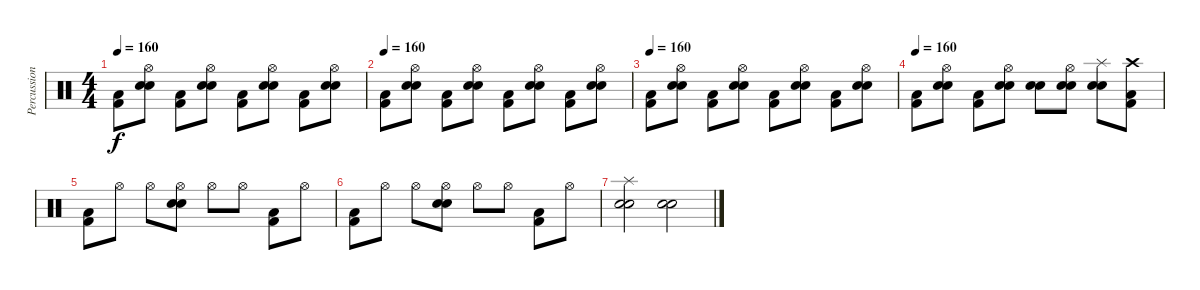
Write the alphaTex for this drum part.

\track ("Percussions" "Percussion") {instrument percussion}
\staff {score}
\articulation defaults
\ts (4 4)
\tempo 160
\clef neutral
\ks c
("Kick (hit) 2" "Low Floor Tom (hit)").8{dy f} ("Hi-Hat (open)" "Snare (hit) 2" "Electric Snare (hit)").8 ("Kick (hit) 2" "Low Floor Tom (hit)").8 ("Hi-Hat (open)" "Snare (hit) 2" "Electric Snare (hit)").8 ("Kick (hit) 2" "Low Floor Tom (hit)").8 ("Hi-Hat (open)" "Snare (hit) 2" "Electric Snare (hit)").8 ("Kick (hit) 2" "Low Floor Tom (hit)").8 ("Hi-Hat (open)" "Snare (hit) 2" "Electric Snare (hit)").8 |
\tempo 160
("Kick (hit) 2" "Low Floor Tom (hit)").8 ("Hi-Hat (open)" "Snare (hit) 2" "Electric Snare (hit)").8 ("Kick (hit) 2" "Low Floor Tom (hit)").8 ("Hi-Hat (open)" "Snare (hit) 2" "Electric Snare (hit)").8 ("Kick (hit) 2" "Low Floor Tom (hit)").8 ("Hi-Hat (open)" "Snare (hit) 2" "Electric Snare (hit)").8 ("Kick (hit) 2" "Low Floor Tom (hit)").8 ("Hi-Hat (open)" "Snare (hit) 2" "Electric Snare (hit)").8 |
\tempo 160
("Kick (hit) 2" "Low Floor Tom (hit)").8 ("Hi-Hat (open)" "Snare (hit) 2" "Electric Snare (hit)").8 ("Kick (hit) 2" "Low Floor Tom (hit)").8 ("Hi-Hat (open)" "Snare (hit) 2" "Electric Snare (hit)").8 ("Kick (hit) 2" "Low Floor Tom (hit)").8 ("Hi-Hat (open)" "Snare (hit) 2" "Electric Snare (hit)").8 ("Kick (hit) 2" "Low Floor Tom (hit)").8 ("Hi-Hat (open)" "Snare (hit) 2" "Electric Snare (hit)").8 |
\tempo 160
("Kick (hit) 2" "Low Floor Tom (hit)").8 ("Hi-Hat (open)" "Snare (hit) 2" "Electric Snare (hit)").8 ("Kick (hit) 2" "Low Floor Tom (hit)").8 ("Hi-Hat (open)" "Snare (hit) 2" "Electric Snare (hit)").8 ("Snare (hit) 2" "Electric Snare (hit)").8 ("Hi-Hat (open)" "Snare (hit) 2" "Electric Snare (hit)").8 ("Splash (hit)" "Snare (hit) 2" "Electric Snare (hit)").8 ("Crash high (hit)" "Kick (hit) 2" "Low Floor Tom (hit)").8 |
("Kick (hit) 2" "Low Floor Tom (hit)").8 "Hi-Hat (open)".8 "Hi-Hat (open)".8 ("Hi-Hat (open)" "Snare (hit) 2" "Electric Snare (hit)").8 "Hi-Hat (open)".8 "Hi-Hat (open)".8 ("Kick (hit) 2" "Low Floor Tom (hit)").8 "Hi-Hat (open)".8 |
("Kick (hit) 2" "Low Floor Tom (hit)").8 "Hi-Hat (open)".8 "Hi-Hat (open)".8 ("Hi-Hat (open)" "Snare (hit) 2" "Electric Snare (hit)").8 "Hi-Hat (open)".8 "Hi-Hat (open)".8 ("Kick (hit) 2" "Low Floor Tom (hit)").8 "Hi-Hat (open)".8 |
("Splash (hit)" "Snare (hit) 2" "Electric Snare (hit)").2 ("Snare (hit) 2" "Electric Snare (hit)").2
